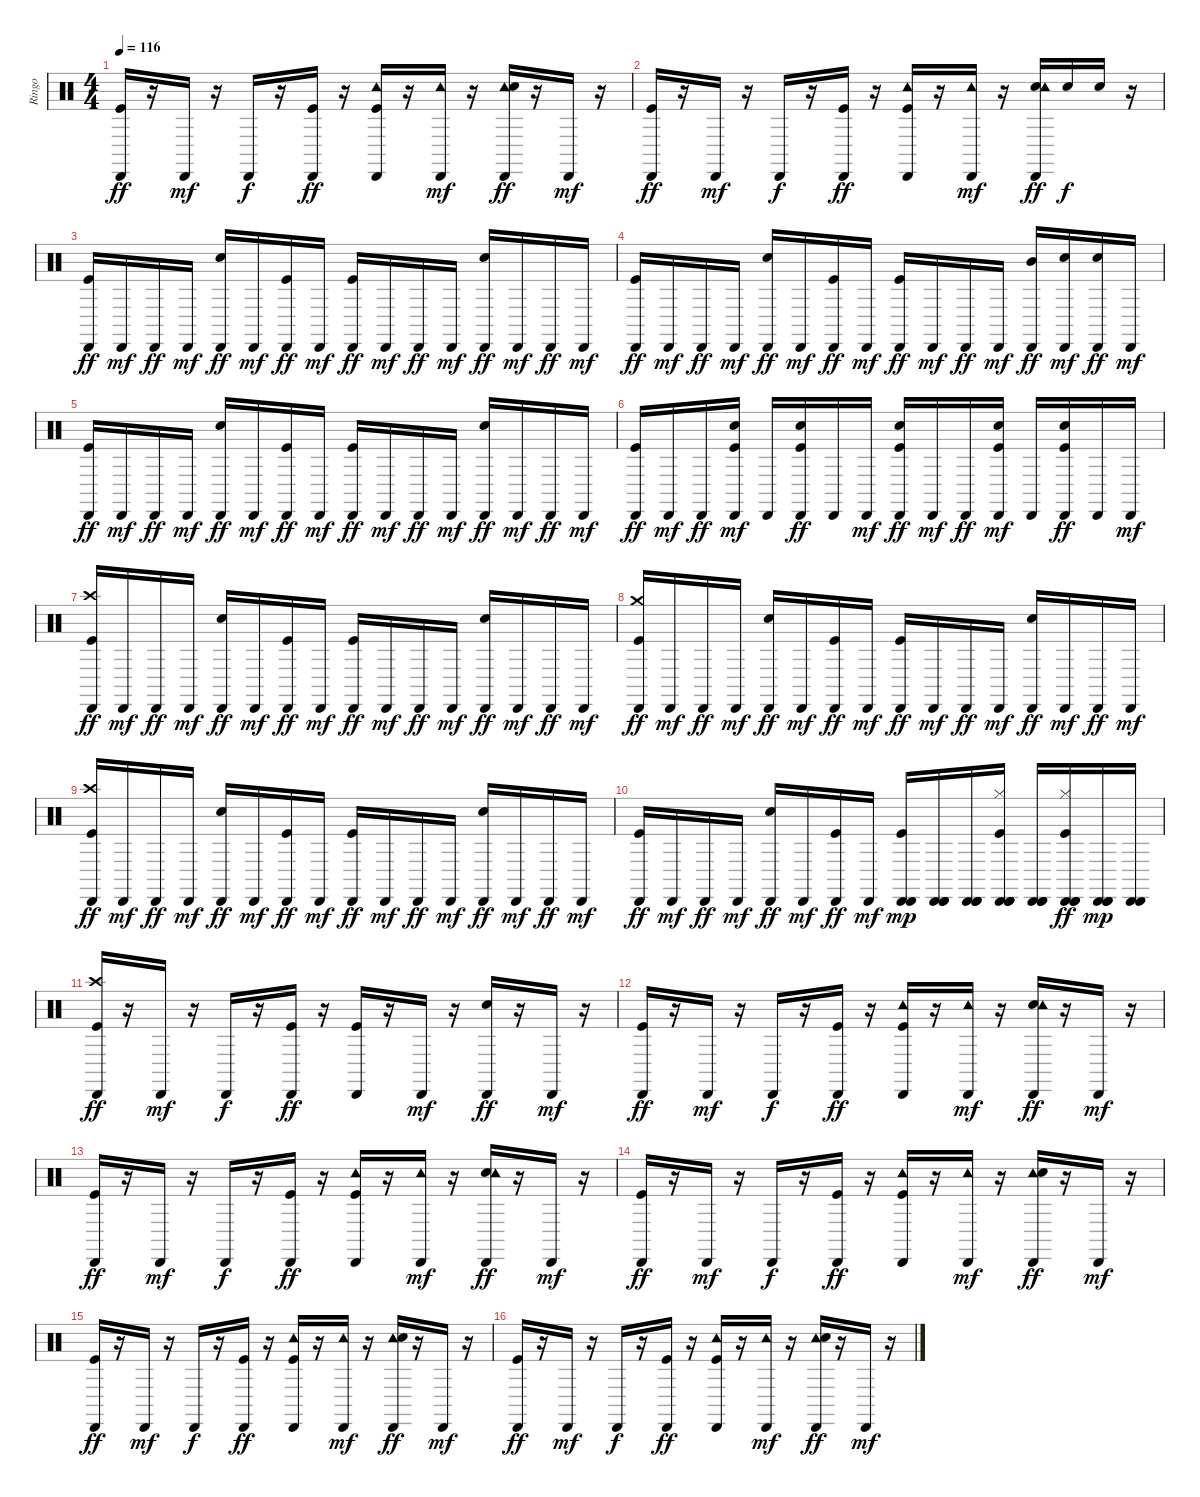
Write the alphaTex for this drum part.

\track ("Ringo" "Ringo") {instrument percussion}
\staff {score}
\articulation defaults
\ts (4 4)
\tempo 116
\clef neutral
\ks c
("Cabasa (hit)" "Kick (hit)").16{dy ff} r.16 "Cabasa (hit)".16{dy mf} r.16 "Cabasa (hit)".16{dy f} r.16 ("Cabasa (hit)" "Kick (hit)").16{dy ff} r.16 ("Cabasa (hit)" "Tambourine (hit)" "Kick (hit)").16 r.16 ("Cabasa (hit)" "Tambourine (hit)").16{dy mf} r.16 ("Cabasa (hit)" "Tambourine (hit)" "Snare (hit) 2").16{dy ff} r.16 "Cabasa (hit)".16{dy mf} r.16 |
("Cabasa (hit)" "Kick (hit)").16{dy ff} r.16 "Cabasa (hit)".16{dy mf} r.16 "Cabasa (hit)".16{dy f} r.16 ("Cabasa (hit)" "Kick (hit)").16{dy ff} r.16 ("Cabasa (hit)" "Tambourine (hit)" "Kick (hit)").16 r.16 ("Cabasa (hit)" "Tambourine (hit)").16{dy mf} r.16 ("Cabasa (hit)" "Snare (hit) 2" "Tambourine (hit)").16{dy ff} "Snare (hit) 2".16{dy f} "Snare (hit) 2".16 r.16 |
("Cabasa (hit)" "Kick (hit)").16{dy ff} "Cabasa (hit)".16{dy mf} "Cabasa (hit)".16{dy ff} "Cabasa (hit)".16{dy mf} ("Cabasa (hit)" "Snare (hit) 2").16{dy ff} "Cabasa (hit)".16{dy mf} ("Cabasa (hit)" "Kick (hit)").16{dy ff} "Cabasa (hit)".16{dy mf} ("Cabasa (hit)" "Kick (hit)").16{dy ff} "Cabasa (hit)".16{dy mf} "Cabasa (hit)".16{dy ff} "Cabasa (hit)".16{dy mf} ("Cabasa (hit)" "Snare (hit) 2").16{dy ff} "Cabasa (hit)".16{dy mf} "Cabasa (hit)".16{dy ff} "Cabasa (hit)".16{dy mf} |
("Cabasa (hit)" "Kick (hit)").16{dy ff} "Cabasa (hit)".16{dy mf} "Cabasa (hit)".16{dy ff} "Cabasa (hit)".16{dy mf} ("Cabasa (hit)" "Snare (hit) 2").16{dy ff} "Cabasa (hit)".16{dy mf} ("Cabasa (hit)" "Kick (hit)").16{dy ff} "Cabasa (hit)".16{dy mf} ("Cabasa (hit)" "Kick (hit)").16{dy ff} "Cabasa (hit)".16{dy mf} "Cabasa (hit)".16{dy ff} "Cabasa (hit)".16{dy mf} ("Cabasa (hit)" "Mid Tom (hit)").16{dy ff} ("Cabasa (hit)" "Snare (hit) 2").16{dy mf} ("Cabasa (hit)" "Snare (hit) 2").16{dy ff} "Cabasa (hit)".16{dy mf} |
("Cabasa (hit)" "Kick (hit)").16{dy ff} "Cabasa (hit)".16{dy mf} "Cabasa (hit)".16{dy ff} "Cabasa (hit)".16{dy mf} ("Cabasa (hit)" "Snare (hit) 2").16{dy ff} "Cabasa (hit)".16{dy mf} ("Cabasa (hit)" "Kick (hit)").16{dy ff} "Cabasa (hit)".16{dy mf} ("Cabasa (hit)" "Kick (hit)").16{dy ff} "Cabasa (hit)".16{dy mf} "Cabasa (hit)".16{dy ff} "Cabasa (hit)".16{dy mf} ("Cabasa (hit)" "Snare (hit) 2").16{dy ff} "Cabasa (hit)".16{dy mf} "Cabasa (hit)".16{dy ff} "Cabasa (hit)".16{dy mf} |
("Cabasa (hit)" "Kick (hit)").16{dy ff} "Cabasa (hit)".16{dy mf} "Cabasa (hit)".16{dy ff} ("Kick (hit)" "Snare (hit) 2" "Cabasa (hit)").16{dy mf} "Cabasa (hit)".16 ("Cabasa (hit)" "Kick (hit)" "Snare (hit) 2").16{dy ff} "Cabasa (hit)".16 "Cabasa (hit)".16{dy mf} ("Cabasa (hit)" "Snare (hit) 2" "Kick (hit)").16{dy ff} "Cabasa (hit)".16{dy mf} "Cabasa (hit)".16{dy ff} ("Kick (hit)" "Snare (hit) 2" "Cabasa (hit)").16{dy mf} "Cabasa (hit)".16 ("Cabasa (hit)" "Kick (hit)" "Snare (hit) 2").16{dy ff} "Cabasa (hit)".16 "Cabasa (hit)".16{dy mf} |
("Cabasa (hit)" "Kick (hit)" "Crash high (hit)").16{dy ff} "Cabasa (hit)".16{dy mf} "Cabasa (hit)".16{dy ff} "Cabasa (hit)".16{dy mf} ("Cabasa (hit)" "Snare (hit) 2").16{dy ff} "Cabasa (hit)".16{dy mf} ("Cabasa (hit)" "Kick (hit)").16{dy ff} "Cabasa (hit)".16{dy mf} ("Cabasa (hit)" "Kick (hit)").16{dy ff} "Cabasa (hit)".16{dy mf} "Cabasa (hit)".16{dy ff} "Cabasa (hit)".16{dy mf} ("Cabasa (hit)" "Snare (hit) 2").16{dy ff} "Cabasa (hit)".16{dy mf} "Cabasa (hit)".16{dy ff} "Cabasa (hit)".16{dy mf} |
("Cabasa (hit)" "Kick (hit)" "Crash medium (hit)").16{dy ff} "Cabasa (hit)".16{dy mf} "Cabasa (hit)".16{dy ff} "Cabasa (hit)".16{dy mf} ("Cabasa (hit)" "Snare (hit) 2").16{dy ff} "Cabasa (hit)".16{dy mf} ("Cabasa (hit)" "Kick (hit)").16{dy ff} "Cabasa (hit)".16{dy mf} ("Cabasa (hit)" "Kick (hit)").16{dy ff} "Cabasa (hit)".16{dy mf} "Cabasa (hit)".16{dy ff} "Cabasa (hit)".16{dy mf} ("Cabasa (hit)" "Snare (hit) 2").16{dy ff} "Cabasa (hit)".16{dy mf} "Cabasa (hit)".16{dy ff} "Cabasa (hit)".16{dy mf} |
("Cabasa (hit)" "Kick (hit)" "Crash high (hit)").16{dy ff} "Cabasa (hit)".16{dy mf} "Cabasa (hit)".16{dy ff} "Cabasa (hit)".16{dy mf} ("Cabasa (hit)" "Snare (hit) 2").16{dy ff} "Cabasa (hit)".16{dy mf} ("Cabasa (hit)" "Kick (hit)").16{dy ff} "Cabasa (hit)".16{dy mf} ("Cabasa (hit)" "Kick (hit)").16{dy ff} "Cabasa (hit)".16{dy mf} "Cabasa (hit)".16{dy ff} "Cabasa (hit)".16{dy mf} ("Cabasa (hit)" "Snare (hit) 2").16{dy ff} "Cabasa (hit)".16{dy mf} "Cabasa (hit)".16{dy ff} "Cabasa (hit)".16{dy mf} |
("Cabasa (hit)" "Kick (hit)").16{dy ff} "Cabasa (hit)".16{dy mf} "Cabasa (hit)".16{dy ff} "Cabasa (hit)".16{dy mf} ("Cabasa (hit)" "Snare (hit) 2").16{dy ff} "Cabasa (hit)".16{dy mf} ("Cabasa (hit)" "Kick (hit)").16{dy ff} "Cabasa (hit)".16{dy mf} ("Cabasa (hit)" "Kick (hit)" "Cabasa (hit)").16{dy mp} ("Cabasa (hit)" "Cabasa (hit)" "Cabasa (hit)").16 ("Cabasa (hit)" "Cabasa (hit)" "Cabasa (hit)").16 ("Cabasa (hit)" "Hi-Hat (closed)" "Kick (hit)" "Cabasa (hit)" "Cabasa (hit)").16 ("Cabasa (hit)" "Cabasa (hit)" "Cabasa (hit)").16 ("Cabasa (hit)" "Cabasa (hit)" "Cabasa (hit)" "Hi-Hat (closed)" "Kick (hit)").16{dy ff} ("Cabasa (hit)" "Cabasa (hit)" "Cabasa (hit)").16{dy mp} ("Cabasa (hit)" "Cabasa (hit)").16 |
("Cabasa (hit)" "Kick (hit)" "Crash high (hit)").16{dy ff} r.16 "Cabasa (hit)".16{dy mf} r.16 "Cabasa (hit)".16{dy f} r.16 ("Cabasa (hit)" "Kick (hit)").16{dy ff} r.16 ("Cabasa (hit)" "Kick (hit)").16 r.16 "Cabasa (hit)".16{dy mf} r.16 ("Cabasa (hit)" "Snare (hit) 2").16{dy ff} r.16 "Cabasa (hit)".16{dy mf} r.16 |
("Cabasa (hit)" "Kick (hit)").16{dy ff} r.16 "Cabasa (hit)".16{dy mf} r.16 "Cabasa (hit)".16{dy f} r.16 ("Cabasa (hit)" "Kick (hit)").16{dy ff} r.16 ("Cabasa (hit)" "Tambourine (hit)" "Kick (hit)").16 r.16 ("Cabasa (hit)" "Tambourine (hit)").16{dy mf} r.16 ("Cabasa (hit)" "Snare (hit) 2" "Tambourine (hit)").16{dy ff} r.16 "Cabasa (hit)".16{dy mf} r.16 |
("Cabasa (hit)" "Kick (hit)").16{dy ff} r.16 "Cabasa (hit)".16{dy mf} r.16 "Cabasa (hit)".16{dy f} r.16 ("Cabasa (hit)" "Kick (hit)").16{dy ff} r.16 ("Cabasa (hit)" "Kick (hit)" "Tambourine (hit)").16 r.16 ("Cabasa (hit)" "Tambourine (hit)").16{dy mf} r.16 ("Cabasa (hit)" "Snare (hit) 2" "Tambourine (hit)").16{dy ff} r.16 "Cabasa (hit)".16{dy mf} r.16 |
("Cabasa (hit)" "Kick (hit)").16{dy ff} r.16 "Cabasa (hit)".16{dy mf} r.16 "Cabasa (hit)".16{dy f} r.16 ("Cabasa (hit)" "Kick (hit)").16{dy ff} r.16 ("Cabasa (hit)" "Tambourine (hit)" "Kick (hit)").16 r.16 ("Cabasa (hit)" "Tambourine (hit)").16{dy mf} r.16 ("Cabasa (hit)" "Tambourine (hit)" "Snare (hit) 2").16{dy ff} r.16 "Cabasa (hit)".16{dy mf} r.16 |
("Cabasa (hit)" "Kick (hit)").16{dy ff} r.16 "Cabasa (hit)".16{dy mf} r.16 "Cabasa (hit)".16{dy f} r.16 ("Cabasa (hit)" "Kick (hit)").16{dy ff} r.16 ("Cabasa (hit)" "Tambourine (hit)" "Kick (hit)").16 r.16 ("Cabasa (hit)" "Tambourine (hit)").16{dy mf} r.16 ("Cabasa (hit)" "Tambourine (hit)" "Snare (hit) 2").16{dy ff} r.16 "Cabasa (hit)".16{dy mf} r.16 |
("Cabasa (hit)" "Kick (hit)").16{dy ff} r.16 "Cabasa (hit)".16{dy mf} r.16 "Cabasa (hit)".16{dy f} r.16 ("Cabasa (hit)" "Kick (hit)").16{dy ff} r.16 ("Cabasa (hit)" "Tambourine (hit)" "Kick (hit)").16 r.16 ("Cabasa (hit)" "Tambourine (hit)").16{dy mf} r.16 ("Cabasa (hit)" "Tambourine (hit)" "Snare (hit) 2").16{dy ff} r.16 "Cabasa (hit)".16{dy mf} r.16
